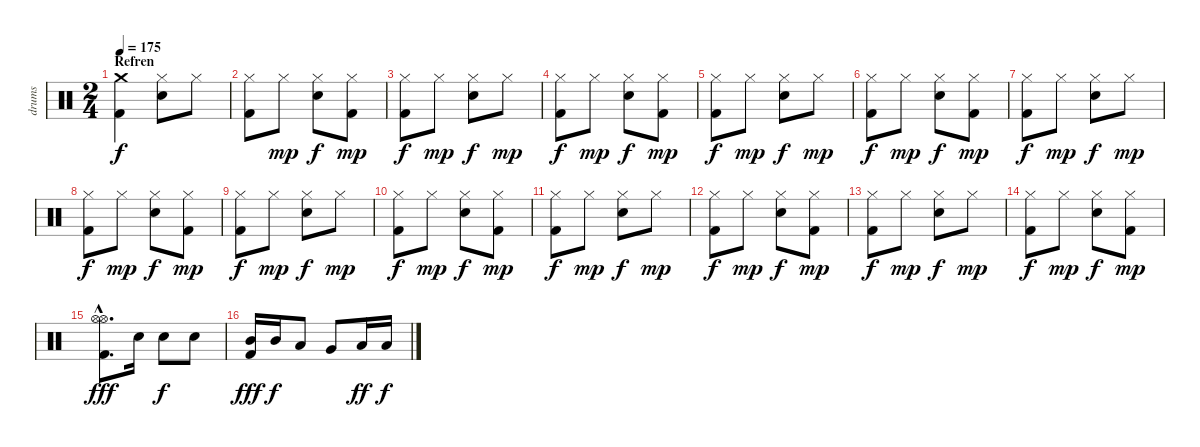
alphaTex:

\track ("drums" "drums") {instrument percussion}
\staff {score}
\articulation defaults
\ts (2 4)
\section ("" "Refren")
\tempo 175
\clef neutral
\ks c
("Crash medium (hit)" "Kick (hit) 2").4{dy f} ("Hi-Hat (closed)" "Snare (hit) 2").8 "Hi-Hat (closed)".8 |
("Hi-Hat (closed)" "Kick (hit) 2").8 "Hi-Hat (closed)".8{dy mp} ("Hi-Hat (closed)" "Snare (hit) 2").8{dy f} ("Hi-Hat (closed)" "Kick (hit) 2").8{dy mp} |
("Hi-Hat (closed)" "Kick (hit) 2").8{dy f} "Hi-Hat (closed)".8{dy mp} ("Hi-Hat (closed)" "Snare (hit) 2").8{dy f} "Hi-Hat (closed)".8{dy mp} |
("Hi-Hat (closed)" "Kick (hit) 2").8{dy f} "Hi-Hat (closed)".8{dy mp} ("Hi-Hat (closed)" "Snare (hit) 2").8{dy f} ("Hi-Hat (closed)" "Kick (hit) 2").8{dy mp} |
("Hi-Hat (closed)" "Kick (hit) 2").8{dy f} "Hi-Hat (closed)".8{dy mp} ("Hi-Hat (closed)" "Snare (hit) 2").8{dy f} "Hi-Hat (closed)".8{dy mp} |
("Hi-Hat (closed)" "Kick (hit) 2").8{dy f} "Hi-Hat (closed)".8{dy mp} ("Hi-Hat (closed)" "Snare (hit) 2").8{dy f} ("Hi-Hat (closed)" "Kick (hit) 2").8{dy mp} |
("Hi-Hat (closed)" "Kick (hit) 2").8{dy f} "Hi-Hat (closed)".8{dy mp} ("Hi-Hat (closed)" "Snare (hit) 2").8{dy f} "Hi-Hat (closed)".8{dy mp} |
("Hi-Hat (closed)" "Kick (hit) 2").8{dy f} "Hi-Hat (closed)".8{dy mp} ("Hi-Hat (closed)" "Snare (hit) 2").8{dy f} ("Hi-Hat (closed)" "Kick (hit) 2").8{dy mp} |
("Hi-Hat (closed)" "Kick (hit) 2").8{dy f} "Hi-Hat (closed)".8{dy mp} ("Hi-Hat (closed)" "Snare (hit) 2").8{dy f} "Hi-Hat (closed)".8{dy mp} |
("Hi-Hat (closed)" "Kick (hit) 2").8{dy f} "Hi-Hat (closed)".8{dy mp} ("Hi-Hat (closed)" "Snare (hit) 2").8{dy f} ("Hi-Hat (closed)" "Kick (hit) 2").8{dy mp} |
("Hi-Hat (closed)" "Kick (hit) 2").8{dy f} "Hi-Hat (closed)".8{dy mp} ("Hi-Hat (closed)" "Snare (hit) 2").8{dy f} "Hi-Hat (closed)".8{dy mp} |
("Hi-Hat (closed)" "Kick (hit) 2").8{dy f} "Hi-Hat (closed)".8{dy mp} ("Hi-Hat (closed)" "Snare (hit) 2").8{dy f} ("Hi-Hat (closed)" "Kick (hit) 2").8{dy mp} |
("Hi-Hat (closed)" "Kick (hit) 2").8{dy f} "Hi-Hat (closed)".8{dy mp} ("Hi-Hat (closed)" "Snare (hit) 2").8{dy f} "Hi-Hat (closed)".8{dy mp} |
("Hi-Hat (closed)" "Kick (hit) 2").8{dy f} "Hi-Hat (closed)".8{dy mp} ("Hi-Hat (closed)" "Snare (hit) 2").8{dy f} ("Hi-Hat (closed)" "Kick (hit) 2").8{dy mp} |
("Hi-Hat (open)"{hac} "Hi-Hat (open)"{hac} "Kick (hit) 2"{hac}).8{d dy fff} "Snare (hit) 2".16 "Snare (hit) 2".8{dy f} "Snare (hit) 2".8 |
("Mid Tom (hit)" "Kick (hit) 2").16{dy fff} "Mid Tom (hit)".16{dy f} "Low Tom (hit)".8 "Very Low Tom (hit)".8 "Low Floor Tom (hit)".16{dy ff} "Low Floor Tom (hit)".16{dy f}
